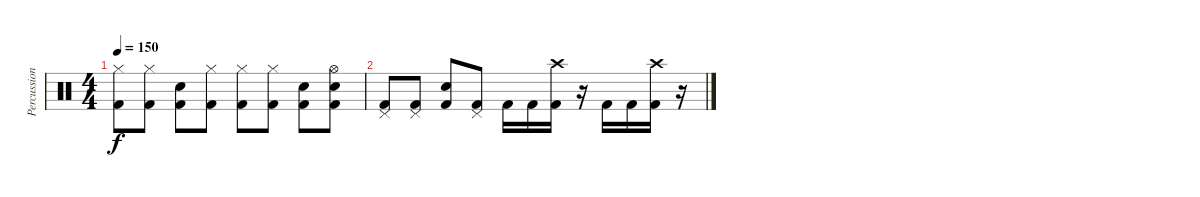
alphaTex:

\track ("Percussion" "Percussion") {instrument percussion}
\staff {score}
\articulation defaults
\ts (4 4)
\tempo 150
\clef neutral
\ks c
("Hi-Hat (closed)" "Kick (hit) 2").8{dy f} ("Hi-Hat (closed)" "Kick (hit) 2").8 ("Snare (hit) 2" "Kick (hit) 2").8 ("Hi-Hat (closed)" "Kick (hit) 2").8 ("Hi-Hat (closed)" "Kick (hit) 2").8 ("Hi-Hat (closed)" "Kick (hit) 2").8 ("Snare (hit) 2" "Kick (hit) 2").8 ("Hi-Hat (open)" "Snare (hit) 2" "Kick (hit) 2").8 |
("Pedal Hi-Hat (hit)" "Kick (hit) 2").8 ("Pedal Hi-Hat (hit)" "Kick (hit) 2").8 ("Snare (hit) 2" "Kick (hit) 2").8 ("Pedal Hi-Hat (hit)" "Kick (hit) 2").8 "Kick (hit) 2".16 "Kick (hit) 2".16 ("Crash high (hit)" "Kick (hit) 2").16 r.16 "Kick (hit) 2".16 "Kick (hit) 2".16 ("Crash high (hit)" "Kick (hit) 2").16 r.16
